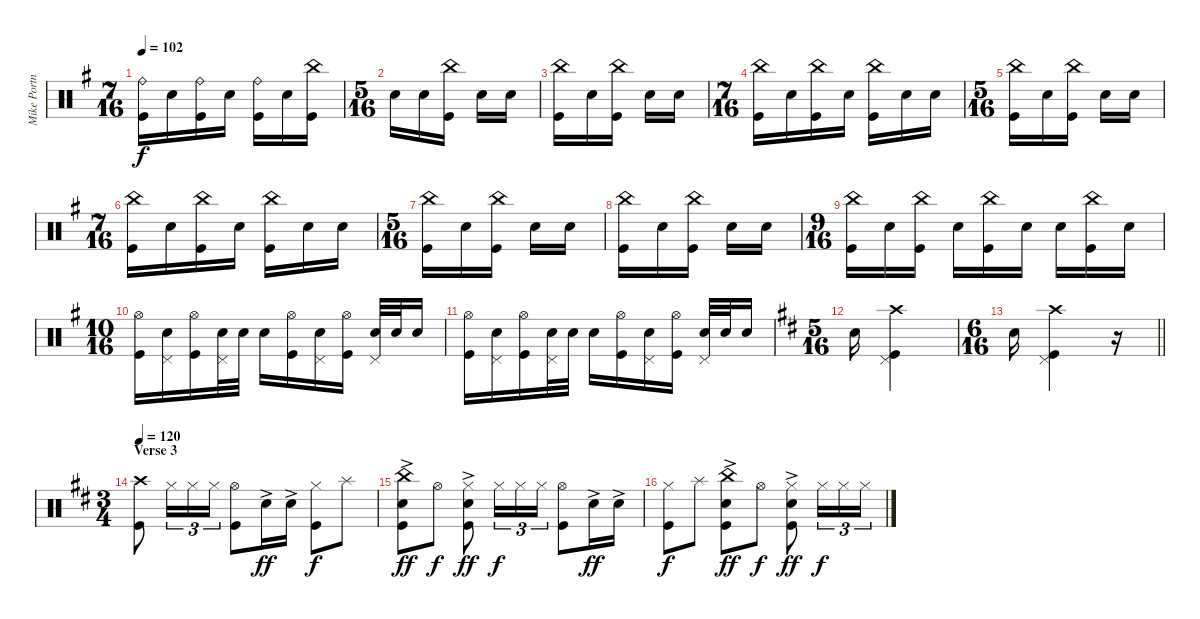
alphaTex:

\track ("Mike Portnoy" "Mike Portn") {instrument percussion}
\staff {score}
\articulation defaults
\ts (7 16)
\tempo 102
\clef neutral
\ks eminor
("Ride (bell)" "Kick (hit)").16{dy f} "Electric Snare (hit)".16 ("Ride (bell)" "Kick (hit)").16 "Electric Snare (hit)".16 ("Ride (bell)" "Kick (hit)").16 "Electric Snare (hit)".16 ("China (hit)" "Kick (hit)").16 |
\ts (5 16)
"Electric Snare (hit)".16 "Electric Snare (hit)".16 ("China (hit)" "Kick (hit)").16 "Electric Snare (hit)".16 "Electric Snare (hit)".16 |
("Kick (hit)" "China (hit)").16 "Electric Snare (hit)".16 ("Kick (hit)" "China (hit)").16 "Electric Snare (hit)".16 "Electric Snare (hit)".16 |
\ts (7 16)
("China (hit)" "Kick (hit)").16 "Electric Snare (hit)".16 ("China (hit)" "Kick (hit)").16 "Electric Snare (hit)".16 ("China (hit)" "Kick (hit)").16 "Electric Snare (hit)".16 "Electric Snare (hit)".16 |
\ts (5 16)
("Kick (hit)" "China (hit)").16 "Electric Snare (hit)".16 ("Kick (hit)" "China (hit)").16 "Electric Snare (hit)".16 "Electric Snare (hit)".16 |
\ts (7 16)
("China (hit)" "Kick (hit)").16 "Electric Snare (hit)".16 ("China (hit)" "Kick (hit)").16 "Electric Snare (hit)".16 ("China (hit)" "Kick (hit)").16 "Electric Snare (hit)".16 "Electric Snare (hit)".16 |
\ts (5 16)
("Kick (hit)" "China (hit)").16 "Electric Snare (hit)".16 ("Kick (hit)" "China (hit)").16 "Electric Snare (hit)".16 "Electric Snare (hit)".16 |
("Kick (hit)" "China (hit)").16 "Electric Snare (hit)".16 ("Kick (hit)" "China (hit)").16 "Electric Snare (hit)".16 "Electric Snare (hit)".16 |
\ts (9 16)
("China (hit)" "Kick (hit)").16 "Electric Snare (hit)".16 ("China (hit)" "Kick (hit)").16 "Electric Snare (hit)".16 ("China (hit)" "Kick (hit)").16 "Electric Snare (hit)".16 "Electric Snare (hit)".16 ("China (hit)" "Kick (hit)").16 "Electric Snare (hit)".16 |
\ts (10 16)
("Kick (hit)" "Hi-Hat (open)").16 ("Snare (hit) 2" "Pedal Hi-Hat (hit)").16 ("Kick (hit)" "Hi-Hat (open)").16 ("Snare (hit) 2" "Pedal Hi-Hat (hit)").32 "Snare (hit) 2".32 "Snare (hit) 2".16 ("Kick (hit)" "Hi-Hat (open)").16 ("Snare (hit) 2" "Pedal Hi-Hat (hit)").16 ("Kick (hit)" "Hi-Hat (open)").16 ("Snare (hit) 2" "Pedal Hi-Hat (hit)").32 "Snare (hit) 2".32 "Snare (hit) 2".16 |
("Kick (hit)" "Hi-Hat (open)").16 ("Snare (hit) 2" "Pedal Hi-Hat (hit)").16 ("Kick (hit)" "Hi-Hat (open)").16 ("Snare (hit) 2" "Pedal Hi-Hat (hit)").32 "Snare (hit) 2".32 "Snare (hit) 2".16 ("Kick (hit)" "Hi-Hat (open)").16 ("Snare (hit) 2" "Pedal Hi-Hat (hit)").16 ("Kick (hit)" "Hi-Hat (open)").16 ("Snare (hit) 2" "Pedal Hi-Hat (hit)").32 "Snare (hit) 2".32 "Snare (hit) 2".16 |
\ts (5 16)
\ks bminor "Snare (hit) 2".16
("Pedal Hi-Hat (hit)" "Crash high (hit)" "Kick (hit)").4 |
\ts (6 16)
\barLineRight lightlight "Snare (hit) 2".16
("Pedal Hi-Hat (hit)" "Crash high (hit)" "Kick (hit)").4 r.16 |
\ts (3 4)
\section ("" "Verse 3")
\tempo 120
("Crash high (hit)" "Kick (hit)").8 "Hi-Hat (closed)".16{tu (3 2)} "Hi-Hat (closed)".16{tu (3 2)} "Hi-Hat (closed)".16{tu (3 2)} ("Hi-Hat (open)" "Kick (hit)").8 "Snare (hit) 2"{ac}.16{dy ff} "Snare (hit) 2"{ac}.16 ("Hi-Hat (closed)" "Kick (hit)").8{dy f} "Splash (hit)".8 |
("China (hit)"{ac} "Snare (hit) 2"{ac} "Kick (hit)"{ac}).8{dy ff} "Hi-Hat (open)".8{dy f} ("Kick (hit)"{ac} "Hi-Hat (closed)"{ac} "Snare (hit) 2"{ac}).8{dy ff} "Hi-Hat (closed)".16{tu (3 2) dy f} "Hi-Hat (closed)".16{tu (3 2)} "Hi-Hat (closed)".16{tu (3 2)} ("Kick (hit)" "Hi-Hat (open)").8 "Snare (hit) 2"{ac}.16{dy ff} "Snare (hit) 2"{ac}.16 |
("Hi-Hat (closed)" "Kick (hit)").8{dy f} "Splash (hit)".8 ("China (hit)"{ac} "Snare (hit) 2"{ac} "Kick (hit)"{ac}).8{dy ff} "Hi-Hat (open)".8{dy f} ("Kick (hit)"{ac} "Hi-Hat (closed)"{ac} "Snare (hit) 2"{ac}).8{dy ff} "Hi-Hat (closed)".16{tu (3 2) dy f} "Hi-Hat (closed)".16{tu (3 2)} "Hi-Hat (closed)".16{tu (3 2)}
